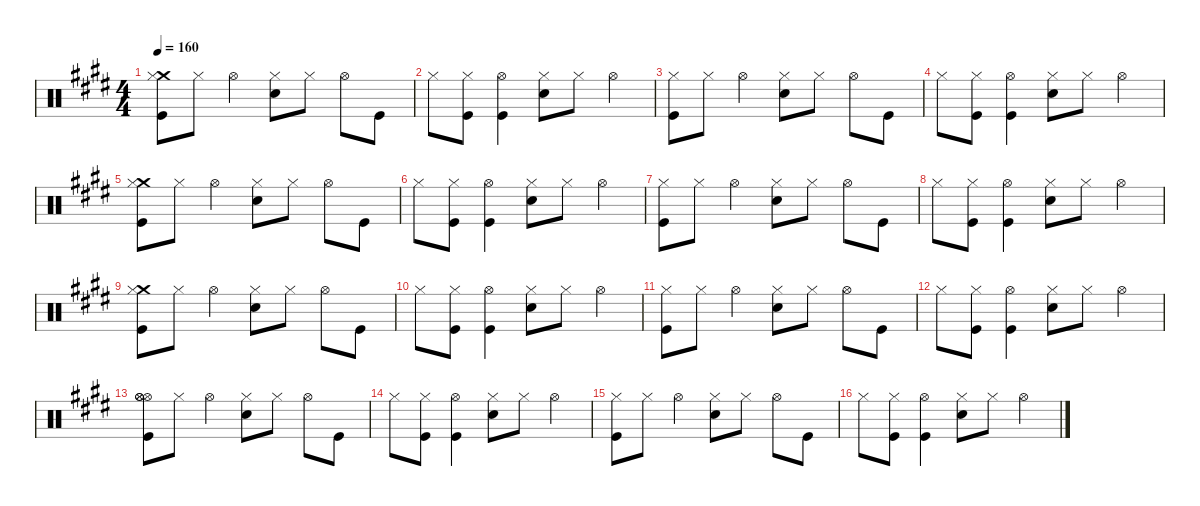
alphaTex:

\defaultSystemsLayout 4
\hideDynamics
\bracketExtendMode nobrackets
\singleTrackTrackNamePolicy hidden
\multiTrackTrackNamePolicy hidden
\firstSystemTrackNameMode fullname
\firstSystemTrackNameOrientation horizontal
\otherSystemsTrackNameOrientation horizontal
\track ("Drums" "drm.") {instrument percussion}
\staff {score}
\articulation defaults
\ts (4 4)
\beaming (8 2 2 2 2)
\tempo 160
\clef neutral
\ks c#minor
("Crash medium (hit)"{acc forcenatural} "Hi-Hat (closed)"{acc forcenatural} "Kick (hit)"{acc forcenatural}).8{dy f beam Down} "Hi-Hat (closed)"{acc forcenatural}.8{dy mf beam Down} "Hi-Hat (open)"{acc forcenatural}.4{dy f beam Down} ("Hi-Hat (closed)"{acc forcenatural} "Snare (hit) 2"{acc forcenatural}).8{beam Down} "Hi-Hat (closed)"{acc forcenatural}.8{dy mf beam Down} "Hi-Hat (open)"{acc forcenatural}.8{dy f beam Down} "Kick (hit)"{acc forcenatural}.8{beam Down} |
"Hi-Hat (closed)"{acc forcenatural}.8{beam Down} ("Hi-Hat (closed)"{acc forcenatural} "Kick (hit)"{acc forcenatural}).8{dy mf beam Down} ("Hi-Hat (open)"{acc forcenatural} "Kick (hit)"{acc forcenatural}).4{dy f beam Down} ("Hi-Hat (closed)"{acc forcenatural} "Snare (hit) 2"{acc forcenatural}).8{beam Down} "Hi-Hat (closed)"{acc forcenatural}.8{dy mf beam Down} "Hi-Hat (open)"{acc forcenatural}.4{dy f beam Down} |
("Hi-Hat (closed)"{acc forcenatural} "Kick (hit)"{acc forcenatural}).8{beam Down} "Hi-Hat (closed)"{acc forcenatural}.8{dy mf beam Down} "Hi-Hat (open)"{acc forcenatural}.4{dy f beam Down} ("Hi-Hat (closed)"{acc forcenatural} "Snare (hit) 2"{acc forcenatural}).8{beam Down} "Hi-Hat (closed)"{acc forcenatural}.8{dy mf beam Down} "Hi-Hat (open)"{acc forcenatural}.8{dy f beam Down} "Kick (hit)"{acc forcenatural}.8{beam Down} |
"Hi-Hat (closed)"{acc forcenatural}.8{beam Down} ("Hi-Hat (closed)"{acc forcenatural} "Kick (hit)"{acc forcenatural}).8{dy mf beam Down} ("Hi-Hat (open)"{acc forcenatural} "Kick (hit)"{acc forcenatural}).4{dy f beam Down} ("Hi-Hat (closed)"{acc forcenatural} "Snare (hit) 2"{acc forcenatural}).8{beam Down} "Hi-Hat (closed)"{acc forcenatural}.8{dy mf beam Down} "Hi-Hat (open)"{acc forcenatural}.4{dy f beam Down} |
("Crash medium (hit)"{acc forcenatural} "Hi-Hat (closed)"{acc forcenatural} "Kick (hit)"{acc forcenatural}).8{beam Down} "Hi-Hat (closed)"{acc forcenatural}.8{dy mf beam Down} "Hi-Hat (open)"{acc forcenatural}.4{dy f beam Down} ("Hi-Hat (closed)"{acc forcenatural} "Snare (hit) 2"{acc forcenatural}).8{beam Down} "Hi-Hat (closed)"{acc forcenatural}.8{dy mf beam Down} "Hi-Hat (open)"{acc forcenatural}.8{dy f beam Down} "Kick (hit)"{acc forcenatural}.8{beam Down} |
"Hi-Hat (closed)"{acc forcenatural}.8{beam Down} ("Hi-Hat (closed)"{acc forcenatural} "Kick (hit)"{acc forcenatural}).8{dy mf beam Down} ("Hi-Hat (open)"{acc forcenatural} "Kick (hit)"{acc forcenatural}).4{dy f beam Down} ("Hi-Hat (closed)"{acc forcenatural} "Snare (hit) 2"{acc forcenatural}).8{beam Down} "Hi-Hat (closed)"{acc forcenatural}.8{dy mf beam Down} "Hi-Hat (open)"{acc forcenatural}.4{dy f beam Down} |
("Hi-Hat (closed)"{acc forcenatural} "Kick (hit)"{acc forcenatural}).8{beam Down} "Hi-Hat (closed)"{acc forcenatural}.8{dy mf beam Down} "Hi-Hat (open)"{acc forcenatural}.4{dy f beam Down} ("Hi-Hat (closed)"{acc forcenatural} "Snare (hit) 2"{acc forcenatural}).8{beam Down} "Hi-Hat (closed)"{acc forcenatural}.8{dy mf beam Down} "Hi-Hat (open)"{acc forcenatural}.8{dy f beam Down} "Kick (hit)"{acc forcenatural}.8{beam Down} |
"Hi-Hat (closed)"{acc forcenatural}.8{beam Down} ("Hi-Hat (closed)"{acc forcenatural} "Kick (hit)"{acc forcenatural}).8{dy mf beam Down} ("Hi-Hat (open)"{acc forcenatural} "Kick (hit)"{acc forcenatural}).4{dy f beam Down} ("Hi-Hat (closed)"{acc forcenatural} "Snare (hit) 2"{acc forcenatural}).8{beam Down} "Hi-Hat (closed)"{acc forcenatural}.8{dy mf beam Down} "Hi-Hat (open)"{acc forcenatural}.4{dy f beam Down} |
("Crash medium (hit)"{acc forcenatural} "Hi-Hat (closed)"{acc forcenatural} "Kick (hit)"{acc forcenatural}).8{beam Down} "Hi-Hat (closed)"{acc forcenatural}.8{dy mf beam Down} "Hi-Hat (open)"{acc forcenatural}.4{dy f beam Down} ("Hi-Hat (closed)"{acc forcenatural} "Snare (hit) 2"{acc forcenatural}).8{beam Down} "Hi-Hat (closed)"{acc forcenatural}.8{dy mf beam Down} "Hi-Hat (open)"{acc forcenatural}.8{dy f beam Down} "Kick (hit)"{acc forcenatural}.8{beam Down} |
"Hi-Hat (closed)"{acc forcenatural}.8{beam Down} ("Hi-Hat (closed)"{acc forcenatural} "Kick (hit)"{acc forcenatural}).8{dy mf beam Down} ("Hi-Hat (open)"{acc forcenatural} "Kick (hit)"{acc forcenatural}).4{dy f beam Down} ("Hi-Hat (closed)"{acc forcenatural} "Snare (hit) 2"{acc forcenatural}).8{beam Down} "Hi-Hat (closed)"{acc forcenatural}.8{dy mf beam Down} "Hi-Hat (open)"{acc forcenatural}.4{dy f beam Down} |
("Hi-Hat (closed)"{acc forcenatural} "Kick (hit)"{acc forcenatural}).8{beam Down} "Hi-Hat (closed)"{acc forcenatural}.8{dy mf beam Down} "Hi-Hat (open)"{acc forcenatural}.4{dy f beam Down} ("Hi-Hat (closed)"{acc forcenatural} "Snare (hit) 2"{acc forcenatural}).8{beam Down} "Hi-Hat (closed)"{acc forcenatural}.8{dy mf beam Down} "Hi-Hat (open)"{acc forcenatural}.8{dy f beam Down} "Kick (hit)"{acc forcenatural}.8{beam Down} |
"Hi-Hat (closed)"{acc forcenatural}.8{beam Down} ("Hi-Hat (closed)"{acc forcenatural} "Kick (hit)"{acc forcenatural}).8{dy mf beam Down} ("Hi-Hat (open)"{acc forcenatural} "Kick (hit)"{acc forcenatural}).4{dy f beam Down} ("Hi-Hat (closed)"{acc forcenatural} "Snare (hit) 2"{acc forcenatural}).8{beam Down} "Hi-Hat (closed)"{acc forcenatural}.8{dy mf beam Down} "Hi-Hat (open)"{acc forcenatural}.4{dy f beam Down} |
("Hi-Hat (open)"{acc forcenatural} "Hi-Hat (open)"{acc forcenatural} "Hi-Hat (open)"{acc forcenatural} "Kick (hit)"{acc forcenatural}).8{beam Down} "Hi-Hat (closed)"{acc forcenatural}.8{dy mf beam Down} "Hi-Hat (open)"{acc forcenatural}.4{dy f beam Down} ("Hi-Hat (closed)"{acc forcenatural} "Snare (hit) 2"{acc forcenatural}).8{beam Down} "Hi-Hat (closed)"{acc forcenatural}.8{dy mf beam Down} "Hi-Hat (open)"{acc forcenatural}.8{dy f beam Down} "Kick (hit)"{acc forcenatural}.8{beam Down} |
"Hi-Hat (closed)"{acc forcenatural}.8{beam Down} ("Hi-Hat (closed)"{acc forcenatural} "Kick (hit)"{acc forcenatural}).8{dy mf beam Down} ("Hi-Hat (open)"{acc forcenatural} "Kick (hit)"{acc forcenatural}).4{dy f beam Down} ("Hi-Hat (closed)"{acc forcenatural} "Snare (hit) 2"{acc forcenatural}).8{beam Down} "Hi-Hat (closed)"{acc forcenatural}.8{dy mf beam Down} "Hi-Hat (open)"{acc forcenatural}.4{dy f beam Down} |
("Hi-Hat (closed)"{acc forcenatural} "Kick (hit)"{acc forcenatural}).8{beam Down} "Hi-Hat (closed)"{acc forcenatural}.8{dy mf beam Down} "Hi-Hat (open)"{acc forcenatural}.4{dy f beam Down} ("Hi-Hat (closed)"{acc forcenatural} "Snare (hit) 2"{acc forcenatural}).8{beam Down} "Hi-Hat (closed)"{acc forcenatural}.8{dy mf beam Down} "Hi-Hat (open)"{acc forcenatural}.8{dy f beam Down} "Kick (hit)"{acc forcenatural}.8{beam Down} |
"Hi-Hat (closed)"{acc forcenatural}.8{beam Down} ("Hi-Hat (closed)"{acc forcenatural} "Kick (hit)"{acc forcenatural}).8{dy mf beam Down} ("Hi-Hat (open)"{acc forcenatural} "Kick (hit)"{acc forcenatural}).4{dy f beam Down} ("Hi-Hat (closed)"{acc forcenatural} "Snare (hit) 2"{acc forcenatural}).8{beam Down} "Hi-Hat (closed)"{acc forcenatural}.8{dy mf beam Down} "Hi-Hat (open)"{acc forcenatural}.4{dy f beam Down}
